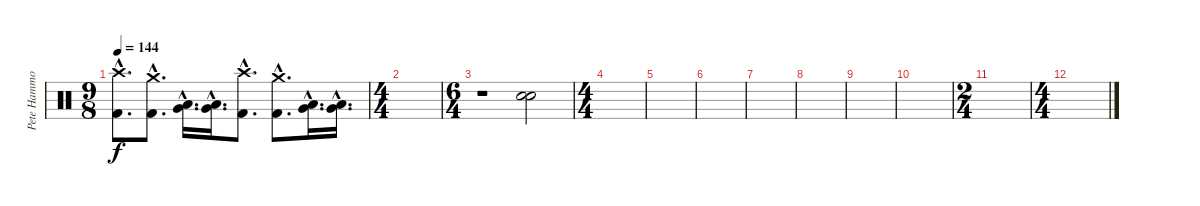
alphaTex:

\track ("Pete Hammoura 2" "Pete Hammo") {instrument percussion}
\staff {score}
\articulation defaults
\ts (9 8)
\tempo 144
\clef neutral
\ks c
("Crash high (hit)"{hac} "Kick (hit) 2"{hac}).8{d dy f} ("Crash medium (hit)"{hac} "Kick (hit) 2"{hac}).8{d} ("Low Tom (hit)"{hac} "Very Low Tom (hit)"{hac}).16{d} ("Low Floor Tom (hit)"{hac} "Very Low Tom (hit)"{hac}).16{d} ("Crash high (hit)"{hac} "Kick (hit) 2"{hac}).8{d} ("Crash medium (hit)"{hac} "Kick (hit) 2"{hac}).8{d} ("Low Tom (hit)"{hac} "Very Low Tom (hit)"{hac}).16{d} ("Very Low Tom (hit)"{hac} "Low Floor Tom (hit)"{hac}).16{d} |
\ts (4 4)
|
\ts (6 4)
r.1 ("Snare (hit)" "Snare (hit)").2 |
\ts (4 4)
|
|
|
|
|
|
|
\ts (2 4)
|
\ts (4 4)
